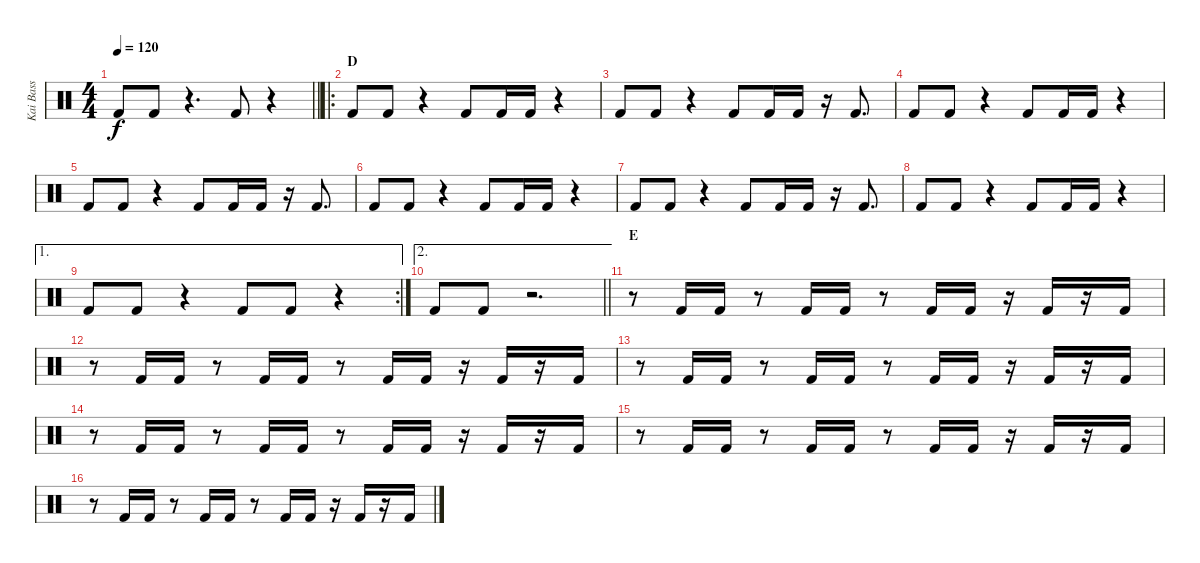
\track ("Kai Bass" "Kai Bass") {instrument percussion}
\staff {score}
\articulation defaults
\ts (4 4)
\tempo 120
\clef neutral
\barLineRight lightlight
\ks c "Kick (hit) 2".8{dy f} "Kick (hit) 2".8
r.4{d} "Kick (hit) 2".8 r.4 |
\ro
\section ("" "D")
"Kick (hit) 2".8 "Kick (hit) 2".8 r.4 "Kick (hit) 2".8 "Kick (hit) 2".16 "Kick (hit) 2".16 r.4 |
"Kick (hit) 2".8 "Kick (hit) 2".8 r.4 "Kick (hit) 2".8 "Kick (hit) 2".16 "Kick (hit) 2".16 r.16 "Kick (hit) 2".8{d} |
"Kick (hit) 2".8 "Kick (hit) 2".8 r.4 "Kick (hit) 2".8 "Kick (hit) 2".16 "Kick (hit) 2".16 r.4 |
"Kick (hit) 2".8 "Kick (hit) 2".8 r.4 "Kick (hit) 2".8 "Kick (hit) 2".16 "Kick (hit) 2".16 r.16 "Kick (hit) 2".8{d} |
"Kick (hit) 2".8 "Kick (hit) 2".8 r.4 "Kick (hit) 2".8 "Kick (hit) 2".16 "Kick (hit) 2".16 r.4 |
"Kick (hit) 2".8 "Kick (hit) 2".8 r.4 "Kick (hit) 2".8 "Kick (hit) 2".16 "Kick (hit) 2".16 r.16 "Kick (hit) 2".8{d} |
"Kick (hit) 2".8 "Kick (hit) 2".8 r.4 "Kick (hit) 2".8 "Kick (hit) 2".16 "Kick (hit) 2".16 r.4 |
\ae 1
\rc 2 "Kick (hit) 2".8 "Kick (hit) 2".8
r.4 "Kick (hit) 2".8 "Kick (hit) 2".8 r.4 |
\ae 2
\barLineRight lightlight "Kick (hit) 2".8 "Kick (hit) 2".8
r.2{d} |
\section ("" "E")
r.8 "Kick (hit) 2".16 "Kick (hit) 2".16 r.8 "Kick (hit) 2".16 "Kick (hit) 2".16 r.8 "Kick (hit) 2".16 "Kick (hit) 2".16 r.16 "Kick (hit) 2".16 r.16 "Kick (hit) 2".16 |
r.8 "Kick (hit) 2".16 "Kick (hit) 2".16 r.8 "Kick (hit) 2".16 "Kick (hit) 2".16 r.8 "Kick (hit) 2".16 "Kick (hit) 2".16 r.16 "Kick (hit) 2".16 r.16 "Kick (hit) 2".16 |
r.8 "Kick (hit) 2".16 "Kick (hit) 2".16 r.8 "Kick (hit) 2".16 "Kick (hit) 2".16 r.8 "Kick (hit) 2".16 "Kick (hit) 2".16 r.16 "Kick (hit) 2".16 r.16 "Kick (hit) 2".16 |
r.8 "Kick (hit) 2".16 "Kick (hit) 2".16 r.8 "Kick (hit) 2".16 "Kick (hit) 2".16 r.8 "Kick (hit) 2".16 "Kick (hit) 2".16 r.16 "Kick (hit) 2".16 r.16 "Kick (hit) 2".16 |
r.8 "Kick (hit) 2".16 "Kick (hit) 2".16 r.8 "Kick (hit) 2".16 "Kick (hit) 2".16 r.8 "Kick (hit) 2".16 "Kick (hit) 2".16 r.16 "Kick (hit) 2".16 r.16 "Kick (hit) 2".16 |
r.8 "Kick (hit) 2".16 "Kick (hit) 2".16 r.8 "Kick (hit) 2".16 "Kick (hit) 2".16 r.8 "Kick (hit) 2".16 "Kick (hit) 2".16 r.16 "Kick (hit) 2".16 r.16 "Kick (hit) 2".16
